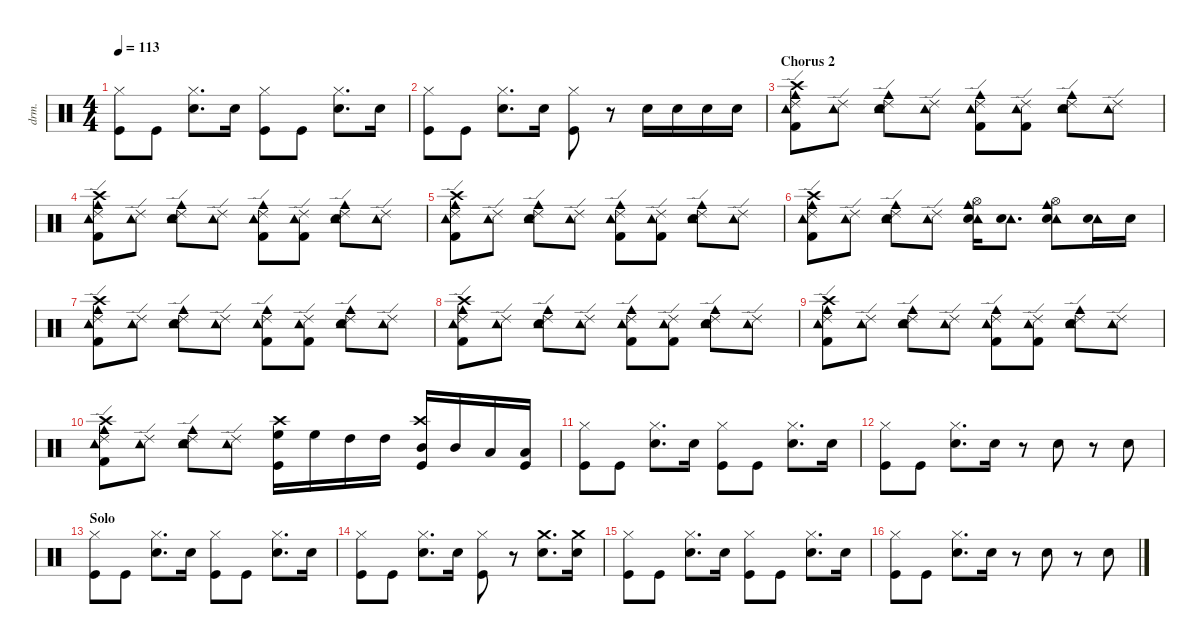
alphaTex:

\defaultSystemsLayout 4
\hideDynamics
\bracketExtendMode nobrackets
\otherSystemsTrackNameOrientation horizontal
\track ("Rockey" "drm.") {instrument percussion}
\staff {score}
\articulation defaults
\ts (4 4)
\tempo 113
\clef neutral
\ks c
("Hi-Hat (closed)" "Kick (hit)").8{dy f beam Down} "Kick (hit)".8{beam Down} ("Hi-Hat (closed)" "Snare (hit) 2").8{d beam Down} "Snare (hit) 2".16{beam Down} ("Hi-Hat (closed)" "Kick (hit)").8{beam Down} "Kick (hit)".8{beam Down} ("Hi-Hat (closed)" "Snare (hit) 2").8{d beam Down} "Snare (hit) 2".16{beam Down} |
("Hi-Hat (closed)" "Kick (hit)").8{beam Down} "Kick (hit)".8{beam Down} ("Hi-Hat (closed)" "Snare (hit) 2").8{d beam Down} "Snare (hit) 2".16{beam Down} ("Hi-Hat (closed)" "Kick (hit)").8{beam Down} r.8{beam Down} "Snare (hit) 2".16{beam Down} "Snare (hit) 2".16{beam Down} "Snare (hit) 2".16{beam Down} "Snare (hit) 2".16{beam Down} |
\section ("" "Chorus 2")
("Ride (edge) 2" "Crash high (hit)" "Cowbell medium (hit)" "Kick (hit) 2" "Tambourine (hit)").8{beam Down} ("Ride (edge) 2" "Tambourine (hit)").8{beam Down} ("Ride (edge) 2" "Cowbell medium (hit)" "Snare (hit) 2" "Tambourine (hit)").8{beam Down} ("Ride (edge) 2" "Tambourine (hit)").8{beam Down} ("Ride (edge) 2" "Cowbell medium (hit)" "Kick (hit) 2" "Tambourine (hit)").8{beam Down} ("Ride (edge) 2" "Kick (hit) 2" "Tambourine (hit)").8{beam Down} ("Ride (edge) 2" "Cowbell medium (hit)" "Snare (hit) 2" "Tambourine (hit)").8{beam Down} ("Ride (edge) 2" "Tambourine (hit)").8{beam Down} |
("Ride (edge) 2" "Crash high (hit)" "Cowbell medium (hit)" "Kick (hit) 2" "Tambourine (hit)").8{beam Down} ("Ride (edge) 2" "Tambourine (hit)").8{beam Down} ("Ride (edge) 2" "Cowbell medium (hit)" "Snare (hit) 2" "Tambourine (hit)").8{beam Down} ("Ride (edge) 2" "Tambourine (hit)").8{beam Down} ("Ride (edge) 2" "Cowbell medium (hit)" "Kick (hit) 2" "Tambourine (hit)").8{beam Down} ("Ride (edge) 2" "Kick (hit) 2" "Tambourine (hit)").8{beam Down} ("Ride (edge) 2" "Cowbell medium (hit)" "Snare (hit) 2" "Tambourine (hit)").8{beam Down} ("Ride (edge) 2" "Tambourine (hit)").8{beam Down} |
("Ride (edge) 2" "Crash high (hit)" "Cowbell medium (hit)" "Kick (hit) 2" "Tambourine (hit)").8{beam Down} ("Ride (edge) 2" "Tambourine (hit)").8{beam Down} ("Ride (edge) 2" "Cowbell medium (hit)" "Snare (hit) 2" "Tambourine (hit)").8{beam Down} ("Ride (edge) 2" "Tambourine (hit)").8{beam Down} ("Ride (edge) 2" "Cowbell medium (hit)" "Kick (hit) 2" "Tambourine (hit)").8{beam Down} ("Ride (edge) 2" "Kick (hit) 2" "Tambourine (hit)").8{beam Down} ("Ride (edge) 2" "Cowbell medium (hit)" "Snare (hit) 2" "Tambourine (hit)").8{beam Down} ("Ride (edge) 2" "Tambourine (hit)").8{beam Down} |
("Ride (edge) 2" "Crash high (hit)" "Cowbell medium (hit)" "Kick (hit) 2" "Tambourine (hit)").8{beam Down} ("Ride (edge) 2" "Tambourine (hit)").8{beam Down} ("Ride (edge) 2" "Cowbell medium (hit)" "Snare (hit) 2" "Tambourine (hit)").8{beam Down} ("Ride (edge) 2" "Tambourine (hit)").8{beam Down} ("Hi-Hat (open)" "Tambourine (hit)" "Cowbell medium (hit)" "Snare (hit) 2").16{beam Down} ("Tambourine (hit)" "Snare (hit) 2").8{d beam Down} ("Hi-Hat (open)" "Tambourine (hit)" "Cowbell medium (hit)" "Snare (hit) 2").8{beam Down} ("Tambourine (hit)" "Snare (hit) 2").16{beam Down} "Snare (hit) 2".16{beam Down} |
("Ride (edge) 2" "Crash high (hit)" "Cowbell medium (hit)" "Kick (hit) 2" "Tambourine (hit)").8{beam Down} ("Ride (edge) 2" "Tambourine (hit)").8{beam Down} ("Ride (edge) 2" "Cowbell medium (hit)" "Snare (hit) 2" "Tambourine (hit)").8{beam Down} ("Ride (edge) 2" "Tambourine (hit)").8{beam Down} ("Ride (edge) 2" "Cowbell medium (hit)" "Kick (hit) 2" "Tambourine (hit)").8{beam Down} ("Ride (edge) 2" "Kick (hit) 2" "Tambourine (hit)").8{beam Down} ("Ride (edge) 2" "Cowbell medium (hit)" "Snare (hit) 2" "Tambourine (hit)").8{beam Down} ("Ride (edge) 2" "Tambourine (hit)").8{beam Down} |
("Ride (edge) 2" "Crash high (hit)" "Cowbell medium (hit)" "Kick (hit) 2" "Tambourine (hit)").8{beam Down} ("Ride (edge) 2" "Tambourine (hit)").8{beam Down} ("Ride (edge) 2" "Cowbell medium (hit)" "Snare (hit) 2" "Tambourine (hit)").8{beam Down} ("Ride (edge) 2" "Tambourine (hit)").8{beam Down} ("Ride (edge) 2" "Cowbell medium (hit)" "Kick (hit) 2" "Tambourine (hit)").8{beam Down} ("Ride (edge) 2" "Kick (hit) 2" "Tambourine (hit)").8{beam Down} ("Ride (edge) 2" "Cowbell medium (hit)" "Snare (hit) 2" "Tambourine (hit)").8{beam Down} ("Ride (edge) 2" "Tambourine (hit)").8{beam Down} |
("Ride (edge) 2" "Crash high (hit)" "Cowbell medium (hit)" "Kick (hit) 2" "Tambourine (hit)").8{beam Down} ("Ride (edge) 2" "Tambourine (hit)").8{beam Down} ("Ride (edge) 2" "Cowbell medium (hit)" "Snare (hit) 2" "Tambourine (hit)").8{beam Down} ("Ride (edge) 2" "Tambourine (hit)").8{beam Down} ("Ride (edge) 2" "Cowbell medium (hit)" "Kick (hit) 2" "Tambourine (hit)").8{beam Down} ("Ride (edge) 2" "Kick (hit) 2" "Tambourine (hit)").8{beam Down} ("Ride (edge) 2" "Cowbell medium (hit)" "Snare (hit) 2" "Tambourine (hit)").8{beam Down} ("Ride (edge) 2" "Tambourine (hit)").8{beam Down} |
("Ride (edge) 2" "Crash high (hit)" "Cowbell medium (hit)" "Kick (hit) 2" "Tambourine (hit)").8{beam Down} ("Ride (edge) 2" "Tambourine (hit)").8{beam Down} ("Ride (edge) 2" "Cowbell medium (hit)" "Snare (hit) 2" "Tambourine (hit)").8{beam Down} ("Ride (edge) 2" "Tambourine (hit)").8{beam Down} ("Crash high (hit)" "High Floor Tom (hit)" "Kick (hit)").16{beam Down} "High Floor Tom (hit)".16{beam Down} "High Tom (hit)".16{beam Down} "High Tom (hit)".16{beam Down} ("Crash high (hit)" "Mid Tom (hit)" "Kick (hit)").16{beam Up} "Mid Tom (hit)".16{beam Up} "Low Tom (hit)".16{beam Up} ("Low Tom (hit)" "Kick (hit)").16{beam Up} |
("Hi-Hat (closed)" "Kick (hit)").8{beam Down} "Kick (hit)".8{beam Down} ("Hi-Hat (closed)" "Snare (hit) 2").8{d beam Down} "Snare (hit) 2".16{beam Down} ("Hi-Hat (closed)" "Kick (hit)").8{beam Down} "Kick (hit)".8{beam Down} ("Hi-Hat (closed)" "Snare (hit) 2").8{d beam Down} "Snare (hit) 2".16{beam Down} |
("Hi-Hat (closed)" "Kick (hit)").8{beam Down} "Kick (hit)".8{beam Down} ("Hi-Hat (closed)" "Snare (hit) 2").8{d beam Down} "Snare (hit) 2".16{beam Down} r.8{beam Down} "Snare (hit) 2".8{beam Down} r.8{beam Down} "Snare (hit) 2".8{beam Down} |
\section ("" "Solo")
("Hi-Hat (closed)" "Kick (hit)").8{beam Down} "Kick (hit)".8{beam Down} ("Hi-Hat (closed)" "Snare (hit) 2").8{d beam Down} "Snare (hit) 2".16{beam Down} ("Hi-Hat (closed)" "Kick (hit)").8{beam Down} "Kick (hit)".8{beam Down} ("Hi-Hat (closed)" "Snare (hit) 2").8{d beam Down} "Snare (hit) 2".16{beam Down} |
("Hi-Hat (closed)" "Kick (hit)").8{beam Down} "Kick (hit)".8{beam Down} ("Hi-Hat (closed)" "Snare (hit) 2").8{d beam Down} "Snare (hit) 2".16{beam Down} ("Hi-Hat (closed)" "Kick (hit)").8{beam Down} r.8{beam Down} ("Crash medium (hit)" "Snare (hit) 2").8{d beam Down} ("Crash medium (hit)" "Snare (hit) 2").16{beam Down} |
("Hi-Hat (closed)" "Kick (hit)").8{beam Down} "Kick (hit)".8{beam Down} ("Hi-Hat (closed)" "Snare (hit) 2").8{d beam Down} "Snare (hit) 2".16{beam Down} ("Hi-Hat (closed)" "Kick (hit)").8{beam Down} "Kick (hit)".8{beam Down} ("Hi-Hat (closed)" "Snare (hit) 2").8{d beam Down} "Snare (hit) 2".16{beam Down} |
("Hi-Hat (closed)" "Kick (hit)").8{beam Down} "Kick (hit)".8{beam Down} ("Hi-Hat (closed)" "Snare (hit) 2").8{d beam Down} "Snare (hit) 2".16{beam Down} r.8{beam Down} "Snare (hit) 2".8{beam Down} r.8{beam Down} "Snare (hit) 2".8{beam Down}
